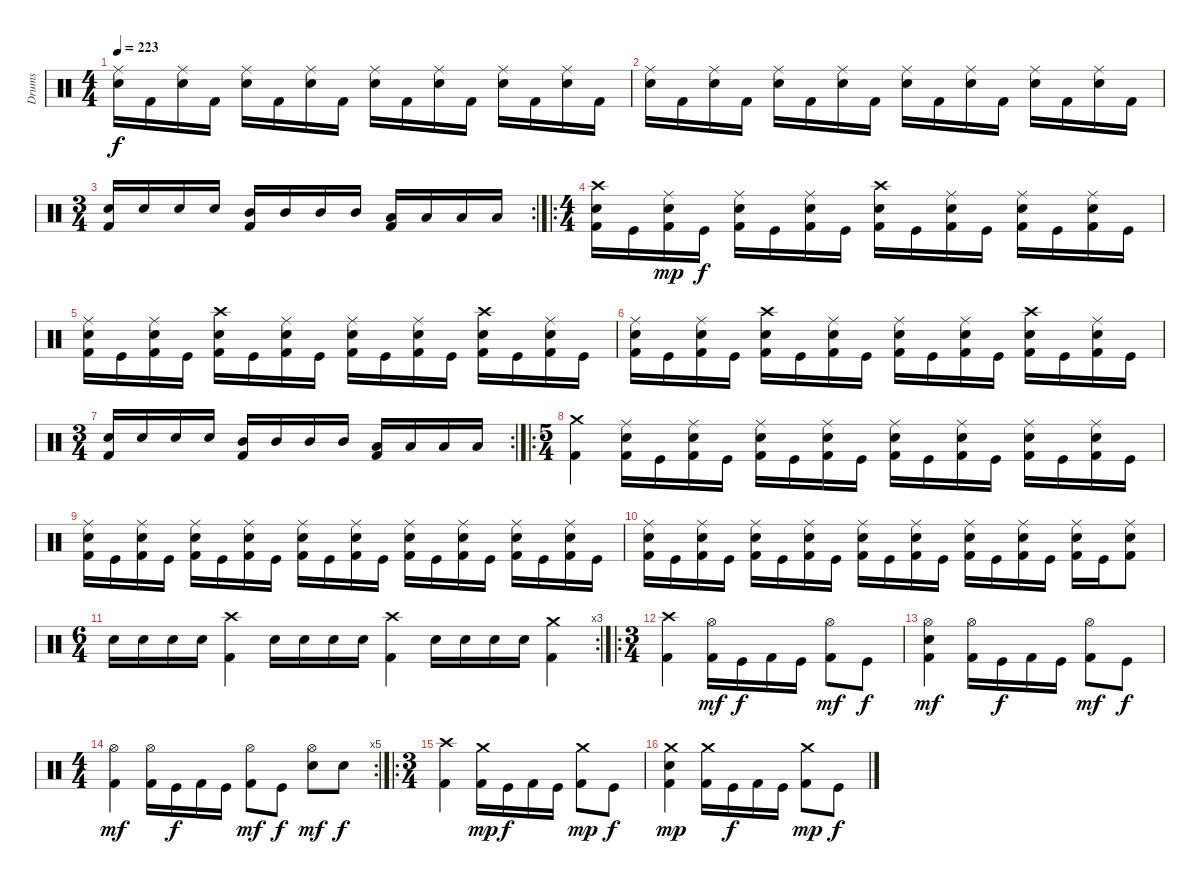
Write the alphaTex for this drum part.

\track ("Drums" "Drums") {instrument percussion}
\staff {score}
\articulation defaults
\ts (4 4)
\tempo 223
\clef neutral
\ks c
("Ride (middle)" "Snare (hit) 2").16{dy f} "Kick (hit) 2".16 ("Ride (middle)" "Snare (hit) 2").16 "Kick (hit) 2".16 ("Ride (middle)" "Snare (hit) 2").16 "Kick (hit) 2".16 ("Ride (middle)" "Snare (hit) 2").16 "Kick (hit) 2".16 ("Ride (middle)" "Snare (hit) 2").16 "Kick (hit) 2".16 ("Ride (middle)" "Snare (hit) 2").16 "Kick (hit) 2".16 ("Ride (middle)" "Snare (hit) 2").16 "Kick (hit) 2".16 ("Ride (middle)" "Snare (hit) 2").16 "Kick (hit) 2".16 |
("Ride (middle)" "Snare (hit) 2").16 "Kick (hit) 2".16 ("Ride (middle)" "Snare (hit) 2").16 "Kick (hit) 2".16 ("Ride (middle)" "Snare (hit) 2").16 "Kick (hit) 2".16 ("Ride (middle)" "Snare (hit) 2").16 "Kick (hit) 2".16 ("Ride (middle)" "Snare (hit) 2").16 "Kick (hit) 2".16 ("Ride (middle)" "Snare (hit) 2").16 "Kick (hit) 2".16 ("Ride (middle)" "Snare (hit) 2").16 "Kick (hit) 2".16 ("Ride (middle)" "Snare (hit) 2").16 "Kick (hit) 2".16 |
\rc 2
\ts (3 4)
("Snare (hit) 2" "Kick (hit) 2").16 "Snare (hit) 2".16 "Snare (hit) 2".16 "Snare (hit) 2".16 ("Mid Tom (hit)" "Kick (hit) 2").16 "Mid Tom (hit)".16 "Mid Tom (hit)".16 "Mid Tom (hit)".16 ("Low Tom (hit)" "Kick (hit) 2").16 "Low Tom (hit)".16 "Low Tom (hit)".16 "Low Tom (hit)".16 |
\ro
\ts (4 4)
("Crash high (hit)" "Snare (hit) 2" "Kick (hit) 2").16 "Kick (hit)".16 ("Ride (middle)" "Snare (hit) 2" "Kick (hit) 2").16{dy mp} "Kick (hit)".16{dy f} ("Ride (middle)" "Snare (hit) 2" "Kick (hit) 2").16 "Kick (hit)".16 ("Ride (middle)" "Snare (hit) 2" "Kick (hit) 2").16 "Kick (hit)".16 ("Crash high (hit)" "Snare (hit) 2" "Kick (hit) 2").16 "Kick (hit)".16 ("Ride (middle)" "Snare (hit) 2" "Kick (hit) 2").16 "Kick (hit)".16 ("Ride (middle)" "Snare (hit) 2" "Kick (hit) 2").16 "Kick (hit)".16 ("Ride (middle)" "Snare (hit) 2" "Kick (hit) 2").16 "Kick (hit)".16 |
("Ride (middle)" "Snare (hit) 2" "Kick (hit) 2").16 "Kick (hit)".16 ("Ride (middle)" "Snare (hit) 2" "Kick (hit) 2").16 "Kick (hit)".16 ("Crash high (hit)" "Snare (hit) 2" "Kick (hit) 2").16 "Kick (hit)".16 ("Ride (middle)" "Snare (hit) 2" "Kick (hit) 2").16 "Kick (hit)".16 ("Ride (middle)" "Snare (hit) 2" "Kick (hit) 2").16 "Kick (hit)".16 ("Ride (middle)" "Snare (hit) 2" "Kick (hit) 2").16 "Kick (hit)".16 ("Crash high (hit)" "Snare (hit) 2" "Kick (hit) 2").16 "Kick (hit)".16 ("Ride (middle)" "Snare (hit) 2" "Kick (hit) 2").16 "Kick (hit)".16 |
("Ride (middle)" "Snare (hit) 2" "Kick (hit) 2").16 "Kick (hit)".16 ("Ride (middle)" "Snare (hit) 2" "Kick (hit) 2").16 "Kick (hit)".16 ("Crash high (hit)" "Snare (hit) 2" "Kick (hit) 2").16 "Kick (hit)".16 ("Ride (middle)" "Snare (hit) 2" "Kick (hit) 2").16 "Kick (hit)".16 ("Ride (middle)" "Snare (hit) 2" "Kick (hit) 2").16 "Kick (hit)".16 ("Ride (middle)" "Snare (hit) 2" "Kick (hit) 2").16 "Kick (hit)".16 ("Crash high (hit)" "Snare (hit) 2" "Kick (hit) 2").16 "Kick (hit)".16 ("Ride (middle)" "Snare (hit) 2" "Kick (hit) 2").16 "Kick (hit)".16 |
\rc 2
\ts (3 4)
("Snare (hit) 2" "Kick (hit) 2").16 "Snare (hit) 2".16 "Snare (hit) 2".16 "Snare (hit) 2".16 ("Mid Tom (hit)" "Kick (hit) 2").16 "Mid Tom (hit)".16 "Mid Tom (hit)".16 "Mid Tom (hit)".16 ("Low Tom (hit)" "Kick (hit) 2").16 "Low Tom (hit)".16 "Low Tom (hit)".16 "Low Tom (hit)".16 |
\ro
\ts (5 4)
("Crash medium (hit)" "Kick (hit) 2").4 ("Ride (middle)" "Snare (hit) 2" "Kick (hit) 2").16 "Kick (hit)".16 ("Ride (middle)" "Snare (hit) 2" "Kick (hit) 2").16 "Kick (hit)".16 ("Ride (middle)" "Snare (hit) 2" "Kick (hit) 2").16 "Kick (hit)".16 ("Ride (middle)" "Snare (hit) 2" "Kick (hit) 2").16 "Kick (hit)".16 ("Ride (middle)" "Snare (hit) 2" "Kick (hit) 2").16 "Kick (hit)".16 ("Ride (middle)" "Snare (hit) 2" "Kick (hit) 2").16 "Kick (hit)".16 ("Ride (middle)" "Snare (hit) 2" "Kick (hit) 2").16 "Kick (hit)".16 ("Ride (middle)" "Snare (hit) 2" "Kick (hit) 2").16 "Kick (hit)".16 |
("Ride (middle)" "Snare (hit) 2" "Kick (hit) 2").16 "Kick (hit)".16 ("Ride (middle)" "Snare (hit) 2" "Kick (hit) 2").16 "Kick (hit)".16 ("Ride (middle)" "Snare (hit) 2" "Kick (hit) 2").16 "Kick (hit)".16 ("Ride (middle)" "Snare (hit) 2" "Kick (hit) 2").16 "Kick (hit)".16 ("Ride (middle)" "Snare (hit) 2" "Kick (hit) 2").16 "Kick (hit)".16 ("Ride (middle)" "Snare (hit) 2" "Kick (hit) 2").16 "Kick (hit)".16 ("Ride (middle)" "Snare (hit) 2" "Kick (hit) 2").16 "Kick (hit)".16 ("Ride (middle)" "Snare (hit) 2" "Kick (hit) 2").16 "Kick (hit)".16 ("Ride (middle)" "Snare (hit) 2" "Kick (hit) 2").16 "Kick (hit)".16 ("Ride (middle)" "Snare (hit) 2" "Kick (hit) 2").16 "Kick (hit)".16 |
("Ride (middle)" "Snare (hit) 2" "Kick (hit) 2").16 "Kick (hit)".16 ("Ride (middle)" "Snare (hit) 2" "Kick (hit) 2").16 "Kick (hit)".16 ("Ride (middle)" "Snare (hit) 2" "Kick (hit) 2").16 "Kick (hit)".16 ("Ride (middle)" "Snare (hit) 2" "Kick (hit) 2").16 "Kick (hit)".16 ("Ride (middle)" "Snare (hit) 2" "Kick (hit) 2").16 "Kick (hit)".16 ("Ride (middle)" "Snare (hit) 2" "Kick (hit) 2").16 "Kick (hit)".16 ("Ride (middle)" "Snare (hit) 2" "Kick (hit) 2").16 "Kick (hit)".16 ("Ride (middle)" "Snare (hit) 2" "Kick (hit) 2").16 "Kick (hit)".16 ("Ride (middle)" "Snare (hit) 2" "Kick (hit) 2").16 "Kick (hit)".16 ("Ride (middle)" "Snare (hit) 2" "Kick (hit) 2").8 |
\rc 3
\ts (6 4)
"Snare (hit) 2".16 "Snare (hit) 2".16 "Snare (hit) 2".16 "Snare (hit) 2".16 ("Crash high (hit)" "Kick (hit) 2").4 "Snare (hit) 2".16 "Snare (hit) 2".16 "Snare (hit) 2".16 "Snare (hit) 2".16 ("Crash high (hit)" "Kick (hit) 2").4 "Snare (hit) 2".16 "Snare (hit) 2".16 "Snare (hit) 2".16 "Snare (hit) 2".16 ("Crash medium (hit)" "Kick (hit) 2").4 |
\ro
\ts (3 4)
("Crash high (hit)" "Kick (hit) 2").4 ("Hi-Hat (open)" "Kick (hit) 2").16{dy mf} "Kick (hit)".16{dy f} "Kick (hit) 2".16 "Kick (hit)".16 ("Hi-Hat (open)" "Kick (hit) 2").8{dy mf} "Kick (hit)".8{dy f} |
("Hi-Hat (open)" "Snare (hit) 2" "Kick (hit) 2").4{dy mf} ("Hi-Hat (open)" "Kick (hit) 2").16 "Kick (hit)".16{dy f} "Kick (hit) 2".16 "Kick (hit)".16 ("Hi-Hat (open)" "Kick (hit) 2").8{dy mf} "Kick (hit)".8{dy f} |
\rc 5
\ts (4 4)
("Hi-Hat (open)" "Kick (hit) 2").4{dy mf} ("Hi-Hat (open)" "Kick (hit) 2").16 "Kick (hit)".16{dy f} "Kick (hit) 2".16 "Kick (hit)".16 ("Hi-Hat (open)" "Kick (hit) 2").8{dy mf} "Kick (hit)".8{dy f} ("Hi-Hat (open)" "Snare (hit) 2").8{dy mf} "Snare (hit) 2".8{dy f} |
\ro
\ts (3 4)
("Crash high (hit)" "Kick (hit) 2").4 ("Crash medium (hit)" "Kick (hit) 2").16{dy mp} "Kick (hit)".16{dy f} "Kick (hit) 2".16 "Kick (hit)".16 ("Crash medium (hit)" "Kick (hit) 2").8{dy mp} "Kick (hit)".8{dy f} |
("Crash medium (hit)" "Snare (hit) 2" "Kick (hit) 2").4{dy mp} ("Crash medium (hit)" "Kick (hit) 2").16 "Kick (hit)".16{dy f} "Kick (hit) 2".16 "Kick (hit)".16 ("Crash medium (hit)" "Kick (hit) 2").8{dy mp} "Kick (hit)".8{dy f}
